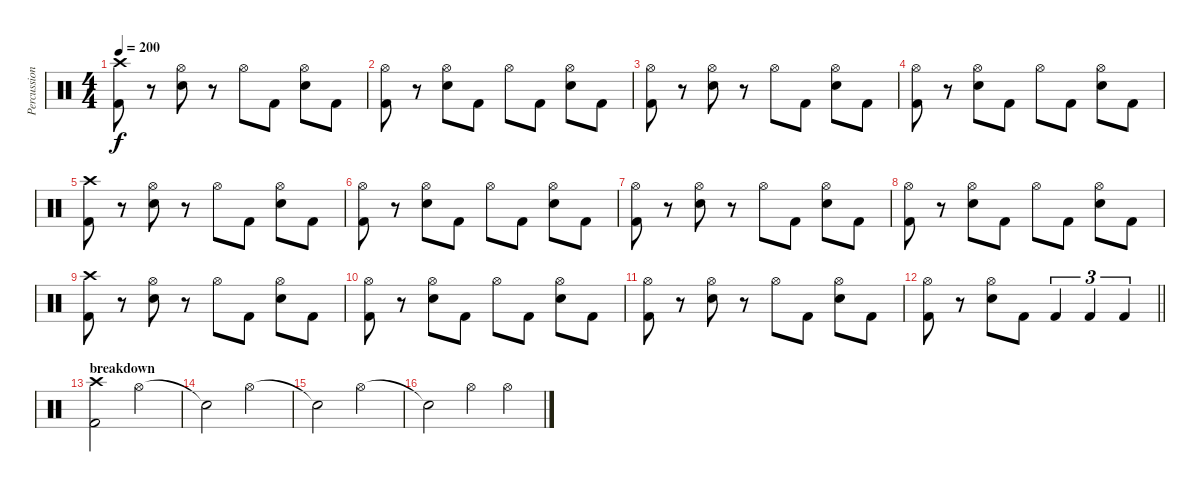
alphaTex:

\track ("Percussion" "Percussion") {instrument percussion}
\staff {score}
\articulation defaults
\ts (4 4)
\tempo 200
\clef neutral
\ks c
("Crash high (hit)" "Kick (hit) 2").8{dy f} r.8 ("Hi-Hat (open)" "Snare (hit) 2").8 r.8 "Hi-Hat (open)".8 "Kick (hit) 2".8 ("Hi-Hat (open)" "Snare (hit) 2").8 "Kick (hit) 2".8 |
("Hi-Hat (open)" "Kick (hit) 2").8 r.8 ("Hi-Hat (open)" "Snare (hit) 2").8 "Kick (hit) 2".8 "Hi-Hat (open)".8 "Kick (hit) 2".8 ("Hi-Hat (open)" "Snare (hit) 2").8 "Kick (hit) 2".8 |
("Hi-Hat (open)" "Kick (hit) 2").8 r.8 ("Hi-Hat (open)" "Snare (hit) 2").8 r.8 "Hi-Hat (open)".8 "Kick (hit) 2".8 ("Hi-Hat (open)" "Snare (hit) 2").8 "Kick (hit) 2".8 |
("Hi-Hat (open)" "Kick (hit) 2").8 r.8 ("Hi-Hat (open)" "Snare (hit) 2").8 "Kick (hit) 2".8 "Hi-Hat (open)".8 "Kick (hit) 2".8 ("Hi-Hat (open)" "Snare (hit) 2").8 "Kick (hit) 2".8 |
("Crash high (hit)" "Kick (hit) 2").8 r.8 ("Hi-Hat (open)" "Snare (hit) 2").8 r.8 "Hi-Hat (open)".8 "Kick (hit) 2".8 ("Hi-Hat (open)" "Snare (hit) 2").8 "Kick (hit) 2".8 |
("Hi-Hat (open)" "Kick (hit) 2").8 r.8 ("Hi-Hat (open)" "Snare (hit) 2").8 "Kick (hit) 2".8 "Hi-Hat (open)".8 "Kick (hit) 2".8 ("Hi-Hat (open)" "Snare (hit) 2").8 "Kick (hit) 2".8 |
("Hi-Hat (open)" "Kick (hit) 2").8 r.8 ("Hi-Hat (open)" "Snare (hit) 2").8 r.8 "Hi-Hat (open)".8 "Kick (hit) 2".8 ("Hi-Hat (open)" "Snare (hit) 2").8 "Kick (hit) 2".8 |
("Hi-Hat (open)" "Kick (hit) 2").8 r.8 ("Hi-Hat (open)" "Snare (hit) 2").8 "Kick (hit) 2".8 "Hi-Hat (open)".8 "Kick (hit) 2".8 ("Hi-Hat (open)" "Snare (hit) 2").8 "Kick (hit) 2".8 |
("Crash high (hit)" "Kick (hit) 2").8 r.8 ("Hi-Hat (open)" "Snare (hit) 2").8 r.8 "Hi-Hat (open)".8 "Kick (hit) 2".8 ("Hi-Hat (open)" "Snare (hit) 2").8 "Kick (hit) 2".8 |
("Hi-Hat (open)" "Kick (hit) 2").8 r.8 ("Hi-Hat (open)" "Snare (hit) 2").8 "Kick (hit) 2".8 "Hi-Hat (open)".8 "Kick (hit) 2".8 ("Hi-Hat (open)" "Snare (hit) 2").8 "Kick (hit) 2".8 |
("Hi-Hat (open)" "Kick (hit) 2").8 r.8 ("Hi-Hat (open)" "Snare (hit) 2").8 r.8 "Hi-Hat (open)".8 "Kick (hit) 2".8 ("Hi-Hat (open)" "Snare (hit) 2").8 "Kick (hit) 2".8 |
\barLineRight lightlight
("Hi-Hat (open)" "Kick (hit) 2").8 r.8 ("Hi-Hat (open)" "Snare (hit) 2").8 "Kick (hit) 2".8 "Kick (hit) 2".4{tu (3 2)} "Kick (hit) 2".4{tu (3 2)} "Kick (hit) 2".4{tu (3 2)} |
\section ("" "breakdown")
("Crash high (hit)" "Kick (hit) 2").2 "Hi-Hat (open)".2 |
"Snare (hit)"{t}.2 "Hi-Hat (open)".2 |
"Snare (hit)"{t}.2 "Hi-Hat (open)".2 |
"Snare (hit)"{t}.2 "Hi-Hat (open)".4 "Hi-Hat (open)".4
